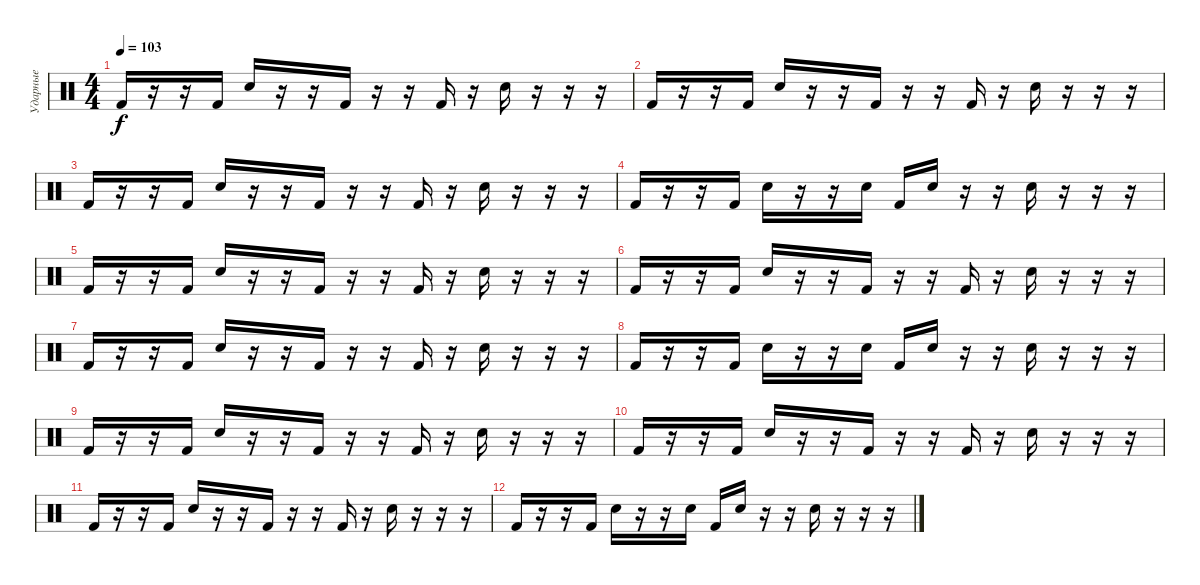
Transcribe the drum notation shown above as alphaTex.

\track ("Ударные" "Ударные") {instrument percussion}
\staff {score}
\articulation defaults
\ts (4 4)
\tempo 103
\clef neutral
\ks c "Kick (hit) 2".16{dy f}
r.16 r.16 "Kick (hit) 2".16 "Snare (hit) 2".16 r.16 r.16 "Kick (hit) 2".16 r.16 r.16 "Kick (hit) 2".16 r.16 "Snare (hit) 2".16 r.16 r.16 r.16 |
"Kick (hit) 2".16 r.16 r.16 "Kick (hit) 2".16 "Snare (hit) 2".16 r.16 r.16 "Kick (hit) 2".16 r.16 r.16 "Kick (hit) 2".16 r.16 "Snare (hit) 2".16 r.16 r.16 r.16 |
"Kick (hit) 2".16 r.16 r.16 "Kick (hit) 2".16 "Snare (hit) 2".16 r.16 r.16 "Kick (hit) 2".16 r.16 r.16 "Kick (hit) 2".16 r.16 "Snare (hit) 2".16 r.16 r.16 r.16 |
"Kick (hit) 2".16 r.16 r.16 "Kick (hit) 2".16 "Snare (hit) 2".16 r.16 r.16 "Snare (hit) 2".16 "Kick (hit) 2".16 "Snare (hit) 2".16 r.16 r.16 "Snare (hit) 2".16 r.16 r.16 r.16 |
"Kick (hit) 2".16 r.16 r.16 "Kick (hit) 2".16 "Snare (hit) 2".16 r.16 r.16 "Kick (hit) 2".16 r.16 r.16 "Kick (hit) 2".16 r.16 "Snare (hit) 2".16 r.16 r.16 r.16 |
"Kick (hit) 2".16 r.16 r.16 "Kick (hit) 2".16 "Snare (hit) 2".16 r.16 r.16 "Kick (hit) 2".16 r.16 r.16 "Kick (hit) 2".16 r.16 "Snare (hit) 2".16 r.16 r.16 r.16 |
"Kick (hit) 2".16 r.16 r.16 "Kick (hit) 2".16 "Snare (hit) 2".16 r.16 r.16 "Kick (hit) 2".16 r.16 r.16 "Kick (hit) 2".16 r.16 "Snare (hit) 2".16 r.16 r.16 r.16 |
"Kick (hit) 2".16 r.16 r.16 "Kick (hit) 2".16 "Snare (hit) 2".16 r.16 r.16 "Snare (hit) 2".16 "Kick (hit) 2".16 "Snare (hit) 2".16 r.16 r.16 "Snare (hit) 2".16 r.16 r.16 r.16 |
"Kick (hit) 2".16 r.16 r.16 "Kick (hit) 2".16 "Snare (hit) 2".16 r.16 r.16 "Kick (hit) 2".16 r.16 r.16 "Kick (hit) 2".16 r.16 "Snare (hit) 2".16 r.16 r.16 r.16 |
"Kick (hit) 2".16 r.16 r.16 "Kick (hit) 2".16 "Snare (hit) 2".16 r.16 r.16 "Kick (hit) 2".16 r.16 r.16 "Kick (hit) 2".16 r.16 "Snare (hit) 2".16 r.16 r.16 r.16 |
"Kick (hit) 2".16 r.16 r.16 "Kick (hit) 2".16 "Snare (hit) 2".16 r.16 r.16 "Kick (hit) 2".16 r.16 r.16 "Kick (hit) 2".16 r.16 "Snare (hit) 2".16 r.16 r.16 r.16 |
"Kick (hit) 2".16 r.16 r.16 "Kick (hit) 2".16 "Snare (hit) 2".16 r.16 r.16 "Snare (hit) 2".16 "Kick (hit) 2".16 "Snare (hit) 2".16 r.16 r.16 "Snare (hit) 2".16 r.16 r.16 r.16
